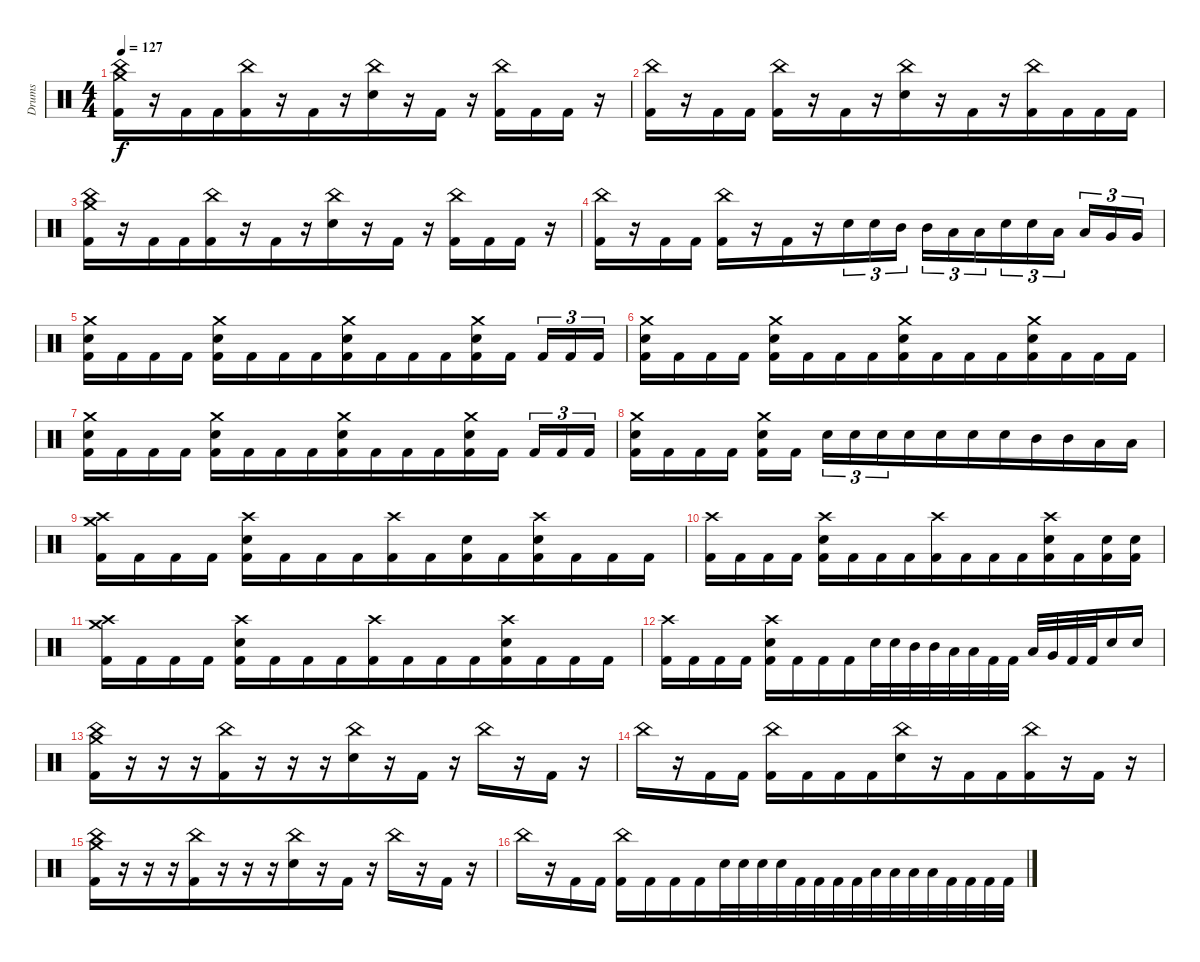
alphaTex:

\track ("Drums" "Drums") {instrument percussion}
\staff {score}
\articulation defaults
\ts (4 4)
\tempo 127
\clef neutral
\ks c
("Crash medium (hit)" "China (hit)" "Kick (hit) 2").16{dy f beam merge} r.16{beam merge} "Kick (hit) 2".16{beam merge} "Kick (hit) 2".16{beam merge} ("China (hit)" "Kick (hit) 2").16{beam merge} r.16{beam merge} "Kick (hit) 2".16{beam merge} r.16 ("China (hit)" "Electric Snare (hit)").16 r.16 "Kick (hit) 2".16 r.16{beam merge} ("China (hit)" "Kick (hit) 2").16{beam merge} "Kick (hit) 2".16 "Kick (hit) 2".16 r.16 |
("China (hit)" "Kick (hit) 2").16{beam merge} r.16 "Kick (hit) 2".16{beam merge} "Kick (hit) 2".16 ("China (hit)" "Kick (hit) 2").16 r.16 "Kick (hit) 2".16{beam merge} r.16 ("China (hit)" "Electric Snare (hit)").16{beam merge} r.16 "Kick (hit) 2".16{beam merge} r.16{beam merge} ("China (hit)" "Kick (hit) 2").16{beam merge} "Kick (hit) 2".16{beam merge} "Kick (hit) 2".16 "Kick (hit) 2".16 |
("Crash medium (hit)" "China (hit)" "Kick (hit) 2").16{beam merge} r.16{beam merge} "Kick (hit) 2".16{beam merge} "Kick (hit) 2".16{beam merge} ("China (hit)" "Kick (hit) 2").16{beam merge} r.16{beam merge} "Kick (hit) 2".16{beam merge} r.16 ("China (hit)" "Electric Snare (hit)").16 r.16 "Kick (hit) 2".16 r.16{beam merge} ("China (hit)" "Kick (hit) 2").16{beam merge} "Kick (hit) 2".16 "Kick (hit) 2".16 r.16 |
("China (hit)" "Kick (hit) 2").16{beam merge} r.16 "Kick (hit) 2".16{beam merge} "Kick (hit) 2".16 ("China (hit)" "Kick (hit) 2").16 r.16 "Kick (hit) 2".16{beam merge} r.16{beam merge} "Electric Snare (hit)".16{tu (3 2) beam merge} "Electric Snare (hit)".16{tu (3 2)} "Mid Tom (hit)".16{tu (3 2) beam splitsecondary} "Mid Tom (hit)".16{tu (3 2) beam merge} "Low Tom (hit)".16{tu (3 2)} "Low Tom (hit)".16{tu (3 2) beam merge} "Electric Snare (hit)".16{tu (3 2)} "Electric Snare (hit)".16{tu (3 2) beam merge} "Low Tom (hit)".16{tu (3 2) beam splitsecondary} "Low Tom (hit)".16{tu (3 2) beam merge} "Very Low Tom (hit)".16{tu (3 2)} "Very Low Tom (hit)".16{tu (3 2)} |
("Crash medium (hit)" "Electric Snare (hit)" "Kick (hit) 2").16{beam merge} "Kick (hit) 2".16{beam merge} "Kick (hit) 2".16{beam merge} "Kick (hit) 2".16 ("Crash medium (hit)" "Electric Snare (hit)" "Kick (hit) 2").16{beam merge} "Kick (hit) 2".16 "Kick (hit) 2".16 "Kick (hit) 2".16{beam merge} ("Crash medium (hit)" "Electric Snare (hit)" "Kick (hit) 2").16{beam merge} "Kick (hit) 2".16 "Kick (hit) 2".16 "Kick (hit) 2".16{beam merge} ("Crash medium (hit)" "Electric Snare (hit)" "Kick (hit) 2").16 "Kick (hit) 2".16{beam splitsecondary} "Kick (hit) 2".16{tu (3 2) beam merge} "Kick (hit) 2".16{tu (3 2) beam merge} "Kick (hit) 2".16{tu (3 2)} |
("Crash medium (hit)" "Electric Snare (hit)" "Kick (hit) 2").16{beam merge} "Kick (hit) 2".16{beam merge} "Kick (hit) 2".16{beam merge} "Kick (hit) 2".16 ("Crash medium (hit)" "Electric Snare (hit)" "Kick (hit) 2").16{beam merge} "Kick (hit) 2".16 "Kick (hit) 2".16 "Kick (hit) 2".16{beam merge} ("Crash medium (hit)" "Electric Snare (hit)" "Kick (hit) 2").16{beam merge} "Kick (hit) 2".16 "Kick (hit) 2".16 "Kick (hit) 2".16{beam merge} ("Crash medium (hit)" "Electric Snare (hit)" "Kick (hit) 2").16 "Kick (hit) 2".16{beam merge} "Kick (hit) 2".16{beam merge} "Kick (hit) 2".16 |
("Crash medium (hit)" "Electric Snare (hit)" "Kick (hit) 2").16{beam merge} "Kick (hit) 2".16{beam merge} "Kick (hit) 2".16{beam merge} "Kick (hit) 2".16 ("Crash medium (hit)" "Electric Snare (hit)" "Kick (hit) 2").16{beam merge} "Kick (hit) 2".16 "Kick (hit) 2".16 "Kick (hit) 2".16{beam merge} ("Crash medium (hit)" "Electric Snare (hit)" "Kick (hit) 2").16{beam merge} "Kick (hit) 2".16 "Kick (hit) 2".16 "Kick (hit) 2".16{beam merge} ("Crash medium (hit)" "Electric Snare (hit)" "Kick (hit) 2").16 "Kick (hit) 2".16{beam splitsecondary} "Kick (hit) 2".16{tu (3 2) beam merge} "Kick (hit) 2".16{tu (3 2) beam merge} "Kick (hit) 2".16{tu (3 2)} |
("Crash medium (hit)" "Electric Snare (hit)" "Kick (hit) 2").16{beam merge} "Kick (hit) 2".16{beam merge} "Kick (hit) 2".16{beam merge} "Kick (hit) 2".16 ("Crash medium (hit)" "Electric Snare (hit)" "Kick (hit) 2").16{beam merge} "Kick (hit) 2".16{beam splitsecondary} "Electric Snare (hit)".16{tu (3 2)} "Electric Snare (hit)".16{tu (3 2)} "Electric Snare (hit)".16{tu (3 2) beam merge} "Electric Snare (hit)".16{beam merge} "Electric Snare (hit)".16 "Electric Snare (hit)".16 "Electric Snare (hit)".16{beam merge} "Mid Tom (hit)".16 "Mid Tom (hit)".16 "Low Tom (hit)".16 "Low Tom (hit)".16 |
("Crash medium (hit)" "Crash high (hit)" "Kick (hit) 2").16{beam merge} "Kick (hit) 2".16{beam merge} "Kick (hit) 2".16{beam merge} "Kick (hit) 2".16 ("Crash high (hit)" "Electric Snare (hit)" "Kick (hit) 2").16{beam merge} "Kick (hit) 2".16 "Kick (hit) 2".16 "Kick (hit) 2".16{beam merge} ("Crash high (hit)" "Kick (hit) 2").16{beam merge} "Kick (hit) 2".16 ("Electric Snare (hit)" "Kick (hit) 2").16 "Kick (hit) 2".16{beam merge} ("Crash high (hit)" "Electric Snare (hit)" "Kick (hit) 2").16 "Kick (hit) 2".16{beam merge} "Kick (hit) 2".16{beam merge} "Kick (hit) 2".16 |
("Crash high (hit)" "Kick (hit) 2").16{beam merge} "Kick (hit) 2".16{beam merge} "Kick (hit) 2".16{beam merge} "Kick (hit) 2".16 ("Crash high (hit)" "Electric Snare (hit)" "Kick (hit) 2").16{beam merge} "Kick (hit) 2".16 "Kick (hit) 2".16 "Kick (hit) 2".16{beam merge} ("Crash high (hit)" "Kick (hit) 2").16{beam merge} "Kick (hit) 2".16 "Kick (hit) 2".16 "Kick (hit) 2".16{beam merge} ("Crash high (hit)" "Electric Snare (hit)" "Kick (hit) 2").16 "Kick (hit) 2".16{beam merge} ("Electric Snare (hit)" "Kick (hit) 2").16{beam merge} ("Electric Snare (hit)" "Kick (hit) 2").16 |
("Crash medium (hit)" "Crash high (hit)" "Kick (hit) 2").16{beam merge} "Kick (hit) 2".16{beam merge} "Kick (hit) 2".16{beam merge} "Kick (hit) 2".16 ("Crash high (hit)" "Electric Snare (hit)" "Kick (hit) 2").16{beam merge} "Kick (hit) 2".16 "Kick (hit) 2".16 "Kick (hit) 2".16{beam merge} ("Crash high (hit)" "Kick (hit) 2").16{beam merge} "Kick (hit) 2".16 "Kick (hit) 2".16 "Kick (hit) 2".16{beam merge} ("Crash high (hit)" "Electric Snare (hit)" "Kick (hit) 2").16 "Kick (hit) 2".16{beam merge} "Kick (hit) 2".16{beam merge} "Kick (hit) 2".16 |
("Crash high (hit)" "Kick (hit) 2").16{beam merge} "Kick (hit) 2".16{beam merge} "Kick (hit) 2".16{beam merge} "Kick (hit) 2".16 ("Crash high (hit)" "Electric Snare (hit)" "Kick (hit) 2").16{beam merge} "Kick (hit) 2".16 "Kick (hit) 2".16 "Kick (hit) 2".16{beam merge} "Electric Snare (hit)".32 "Electric Snare (hit)".32{beam merge} "Mid Tom (hit)".32 "Mid Tom (hit)".32 "Low Tom (hit)".32 "Low Tom (hit)".32{beam merge} "Kick (hit) 2".32{beam merge} "Kick (hit) 2".32 "Low Tom (hit)".32 "Very Low Tom (hit)".32 "Kick (hit) 2".32 "Kick (hit) 2".32 "Electric Snare (hit)".16 "Electric Snare (hit)".16 |
("Crash medium (hit)" "China (hit)" "Kick (hit) 2").16{beam merge} r.16{beam merge} r.16{beam merge} r.16 ("China (hit)" "Kick (hit) 2").16{beam merge} r.16 r.16 r.16{beam merge} ("China (hit)" "Electric Snare (hit)").16{beam merge} r.16 "Kick (hit) 2".16 r.16{beam merge} "China (hit)".16 r.16{beam merge} "Kick (hit) 2".16{beam merge} r.16 |
"China (hit)".16{beam merge} r.16{beam merge} "Kick (hit) 2".16{beam merge} "Kick (hit) 2".16 ("China (hit)" "Kick (hit) 2").16{beam merge} "Kick (hit) 2".16 "Kick (hit) 2".16 "Kick (hit) 2".16{beam merge} ("China (hit)" "Electric Snare (hit)").16{beam merge} r.16 "Kick (hit) 2".16 "Kick (hit) 2".16{beam merge} ("China (hit)" "Kick (hit) 2").16 r.16{beam merge} "Kick (hit) 2".16 r.16 |
("Crash medium (hit)" "China (hit)" "Kick (hit) 2").16{beam merge} r.16{beam merge} r.16{beam merge} r.16 ("China (hit)" "Kick (hit) 2").16{beam merge} r.16 r.16 r.16{beam merge} ("China (hit)" "Electric Snare (hit)").16{beam merge} r.16 "Kick (hit) 2".16 r.16{beam merge} "China (hit)".16 r.16{beam merge} "Kick (hit) 2".16{beam merge} r.16 |
"China (hit)".16{beam merge} r.16{beam merge} "Kick (hit) 2".16{beam merge} "Kick (hit) 2".16 ("China (hit)" "Kick (hit) 2").16{beam merge} "Kick (hit) 2".16 "Kick (hit) 2".16 "Kick (hit) 2".16{beam merge} "Electric Snare (hit)".32{beam merge} "Electric Snare (hit)".32 "Electric Snare (hit)".32 "Electric Snare (hit)".32 "Kick (hit) 2".32 "Kick (hit) 2".32{beam merge} "Kick (hit) 2".32 "Kick (hit) 2".32{beam merge} "Low Tom (hit)".32 "Low Tom (hit)".32 "Low Tom (hit)".32 "Low Tom (hit)".32 "Kick (hit) 2".32 "Kick (hit) 2".32 "Kick (hit) 2".32{beam merge} "Kick (hit) 2".32
